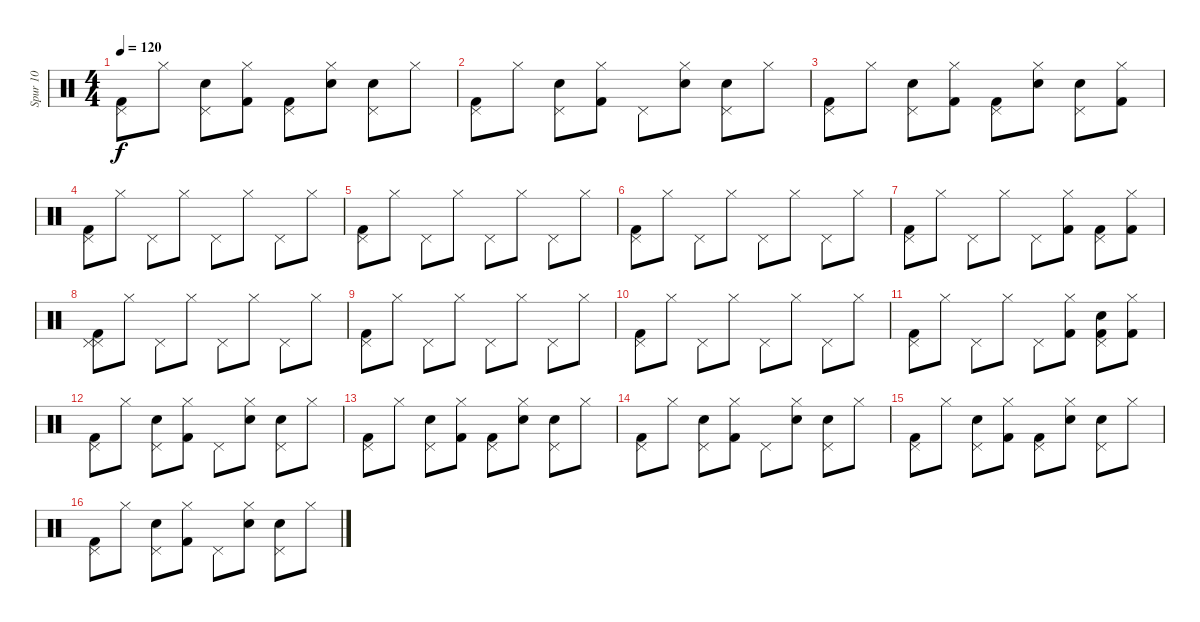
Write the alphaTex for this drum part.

\track ("Spur 10" "Spur 10") {instrument percussion}
\staff {score}
\articulation defaults
\ts (4 4)
\tempo 120
\clef neutral
\ks c
("Pedal Hi-Hat (hit)" "Kick (hit) 2").8{dy f} "Hi-Hat (closed)".8 ("Pedal Hi-Hat (hit)" "Snare (hit) 2").8 ("Hi-Hat (closed)" "Kick (hit) 2").8 ("Pedal Hi-Hat (hit)" "Kick (hit) 2").8 ("Hi-Hat (closed)" "Snare (hit) 2").8 ("Pedal Hi-Hat (hit)" "Snare (hit) 2").8 "Hi-Hat (closed)".8 |
("Pedal Hi-Hat (hit)" "Kick (hit) 2").8 "Hi-Hat (closed)".8 ("Pedal Hi-Hat (hit)" "Snare (hit) 2").8 ("Hi-Hat (closed)" "Kick (hit) 2").8 "Pedal Hi-Hat (hit)".8 ("Hi-Hat (closed)" "Snare (hit) 2").8 ("Pedal Hi-Hat (hit)" "Snare (hit) 2").8 "Hi-Hat (closed)".8 |
("Pedal Hi-Hat (hit)" "Kick (hit) 2").8 "Hi-Hat (closed)".8 ("Pedal Hi-Hat (hit)" "Snare (hit) 2").8 ("Hi-Hat (closed)" "Kick (hit) 2").8 ("Pedal Hi-Hat (hit)" "Kick (hit) 2").8 ("Hi-Hat (closed)" "Snare (hit) 2").8 ("Pedal Hi-Hat (hit)" "Snare (hit) 2").8 ("Kick (hit) 2" "Hi-Hat (closed)").8 |
("Pedal Hi-Hat (hit)" "Kick (hit) 2").8 "Hi-Hat (closed)".8 "Pedal Hi-Hat (hit)".8 "Hi-Hat (closed)".8 "Pedal Hi-Hat (hit)".8 "Hi-Hat (closed)".8 "Pedal Hi-Hat (hit)".8 "Hi-Hat (closed)".8 |
("Kick (hit) 2" "Pedal Hi-Hat (hit)").8 "Hi-Hat (closed)".8 "Pedal Hi-Hat (hit)".8 "Hi-Hat (closed)".8 "Pedal Hi-Hat (hit)".8 "Hi-Hat (closed)".8 "Pedal Hi-Hat (hit)".8 "Hi-Hat (closed)".8 |
("Kick (hit) 2" "Pedal Hi-Hat (hit)").8 "Hi-Hat (closed)".8 "Pedal Hi-Hat (hit)".8 "Hi-Hat (closed)".8 "Pedal Hi-Hat (hit)".8 "Hi-Hat (closed)".8 "Pedal Hi-Hat (hit)".8 "Hi-Hat (closed)".8 |
("Pedal Hi-Hat (hit)" "Kick (hit) 2").8 "Hi-Hat (closed)".8 "Pedal Hi-Hat (hit)".8 "Hi-Hat (closed)".8 "Pedal Hi-Hat (hit)".8 ("Kick (hit) 2" "Hi-Hat (closed)").8 ("Kick (hit) 2" "Pedal Hi-Hat (hit)").8 ("Kick (hit) 2" "Hi-Hat (closed)").8 |
("Kick (hit) 2" "Pedal Hi-Hat (hit)" "Pedal Hi-Hat (hit)").8 "Hi-Hat (closed)".8 "Pedal Hi-Hat (hit)".8 "Hi-Hat (closed)".8 "Pedal Hi-Hat (hit)".8 "Hi-Hat (closed)".8 "Pedal Hi-Hat (hit)".8 "Hi-Hat (closed)".8 |
("Pedal Hi-Hat (hit)" "Kick (hit) 2").8 "Hi-Hat (closed)".8 "Pedal Hi-Hat (hit)".8 "Hi-Hat (closed)".8 "Pedal Hi-Hat (hit)".8 "Hi-Hat (closed)".8 "Pedal Hi-Hat (hit)".8 "Hi-Hat (closed)".8 |
("Pedal Hi-Hat (hit)" "Kick (hit) 2").8 "Hi-Hat (closed)".8 "Pedal Hi-Hat (hit)".8 "Hi-Hat (closed)".8 "Pedal Hi-Hat (hit)".8 "Hi-Hat (closed)".8 "Pedal Hi-Hat (hit)".8 "Hi-Hat (closed)".8 |
("Pedal Hi-Hat (hit)" "Kick (hit) 2").8 "Hi-Hat (closed)".8 "Pedal Hi-Hat (hit)".8 "Hi-Hat (closed)".8 "Pedal Hi-Hat (hit)".8 ("Hi-Hat (closed)" "Kick (hit) 2").8 ("Snare (hit) 2" "Pedal Hi-Hat (hit)" "Kick (hit) 2").8 ("Kick (hit) 2" "Hi-Hat (closed)").8 |
("Kick (hit) 2" "Pedal Hi-Hat (hit)").8 "Hi-Hat (closed)".8 ("Pedal Hi-Hat (hit)" "Snare (hit) 2").8 ("Hi-Hat (closed)" "Kick (hit) 2").8 "Pedal Hi-Hat (hit)".8 ("Snare (hit) 2" "Hi-Hat (closed)").8 ("Pedal Hi-Hat (hit)" "Snare (hit) 2").8 "Hi-Hat (closed)".8 |
("Pedal Hi-Hat (hit)" "Kick (hit) 2").8 "Hi-Hat (closed)".8 ("Pedal Hi-Hat (hit)" "Snare (hit) 2").8 ("Kick (hit) 2" "Hi-Hat (closed)").8 ("Kick (hit) 2" "Pedal Hi-Hat (hit)").8 ("Snare (hit) 2" "Hi-Hat (closed)").8 ("Pedal Hi-Hat (hit)" "Snare (hit) 2").8 "Hi-Hat (closed)".8 |
("Pedal Hi-Hat (hit)" "Kick (hit) 2").8 "Hi-Hat (closed)".8 ("Pedal Hi-Hat (hit)" "Snare (hit) 2").8 ("Hi-Hat (closed)" "Kick (hit) 2").8 "Pedal Hi-Hat (hit)".8 ("Hi-Hat (closed)" "Snare (hit) 2").8 ("Snare (hit) 2" "Pedal Hi-Hat (hit)").8 "Hi-Hat (closed)".8 |
("Kick (hit) 2" "Pedal Hi-Hat (hit)").8 "Hi-Hat (closed)".8 ("Pedal Hi-Hat (hit)" "Snare (hit) 2").8 ("Kick (hit) 2" "Hi-Hat (closed)").8 ("Pedal Hi-Hat (hit)" "Kick (hit) 2").8 ("Snare (hit) 2" "Hi-Hat (closed)").8 ("Snare (hit) 2" "Pedal Hi-Hat (hit)").8 "Hi-Hat (closed)".8 |
("Kick (hit) 2" "Pedal Hi-Hat (hit)").8 "Hi-Hat (closed)".8 ("Snare (hit) 2" "Pedal Hi-Hat (hit)").8 ("Kick (hit) 2" "Hi-Hat (closed)").8 "Pedal Hi-Hat (hit)".8 ("Snare (hit) 2" "Hi-Hat (closed)").8 ("Snare (hit) 2" "Pedal Hi-Hat (hit)").8 "Hi-Hat (closed)".8
